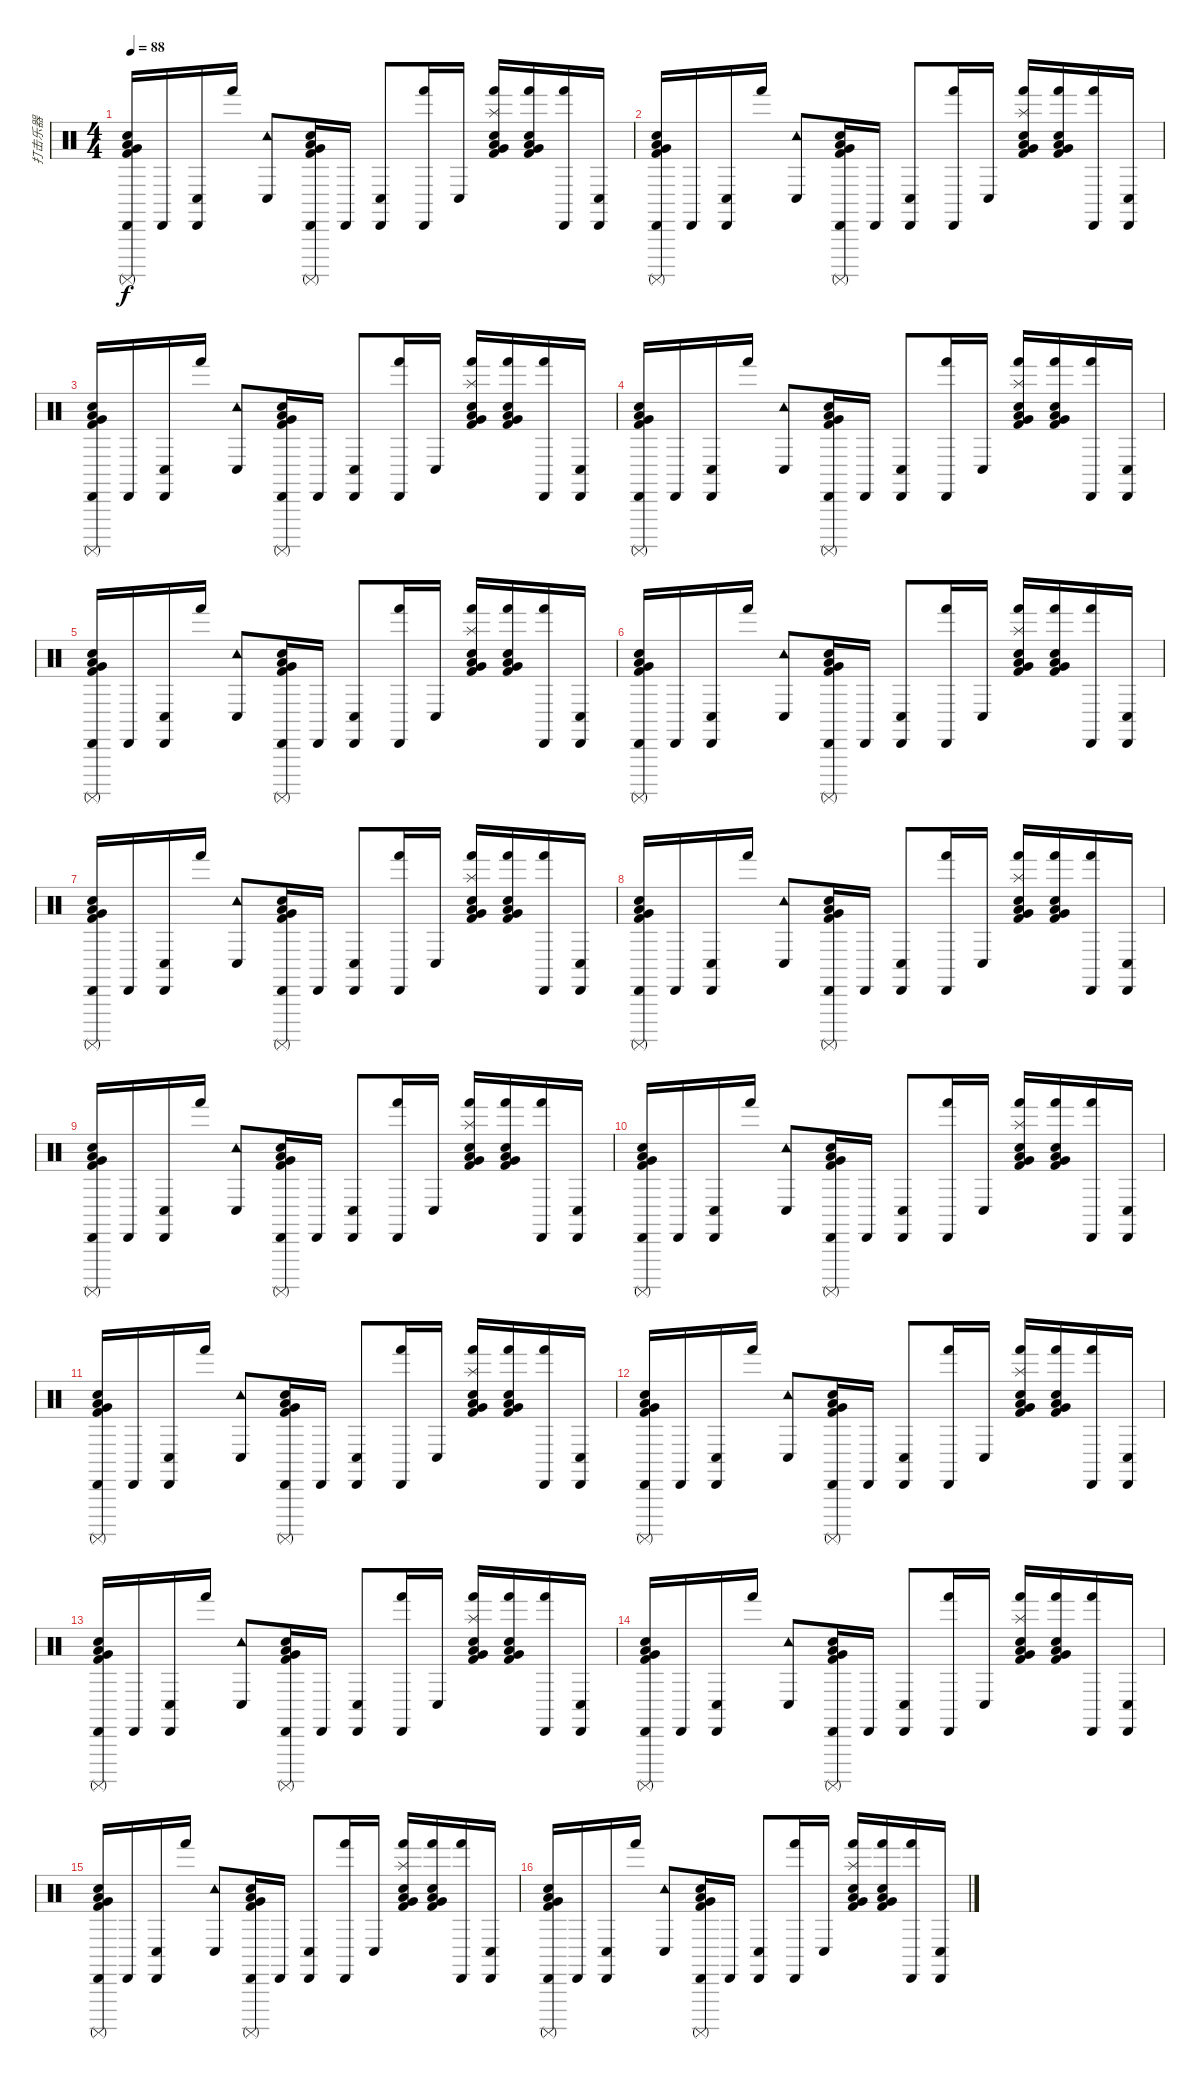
\track ("打击乐器" "打击乐器") {instrument percussion}
\staff {score}
\articulation defaults
\ts (4 4)
\tempo 88
\clef neutral
\ks c
("Cabasa (hit)" "Surdo (mute)" "Electric Snare (hit)" "Very Low Tom (hit)" "Low Floor Tom (hit)" "Kick (hit) 2").16{bu 240 dy f} "Cabasa (hit)".16 ("Cabasa (hit)" "Conga low (hit)").16 "Hand (hit)".16 ("Tambourine (hit)" "Conga low (hit)").8 ("Cabasa (hit)" "Surdo (mute)" "Electric Snare (hit)" "Very Low Tom (hit)" "Low Floor Tom (hit)" "Kick (hit) 2").16{bd 60} "Cabasa (hit)".16 ("Cabasa (hit)" "Conga low (hit)").8 ("Cabasa (hit)" "Hand (hit)").16 "Conga low (hit)".16 ("Splash (hit)" "Hand (hit)" "Electric Snare (hit)" "Very Low Tom (hit)" "Low Floor Tom (hit)" "Kick (hit) 2").16{bu 60} ("Hand (hit)" "Electric Snare (hit)" "Very Low Tom (hit)" "Low Floor Tom (hit)" "Kick (hit) 2").16{bd 60} ("Cabasa (hit)" "Hand (hit)").16 ("Cabasa (hit)" "Conga low (hit)").16 |
("Cabasa (hit)" "Surdo (mute)" "Electric Snare (hit)" "Very Low Tom (hit)" "Low Floor Tom (hit)" "Kick (hit) 2").16{bu 240} "Cabasa (hit)".16 ("Cabasa (hit)" "Conga low (hit)").16 "Hand (hit)".16 ("Tambourine (hit)" "Conga low (hit)").8 ("Cabasa (hit)" "Surdo (mute)" "Electric Snare (hit)" "Very Low Tom (hit)" "Low Floor Tom (hit)" "Kick (hit) 2").16{bu 240} "Cabasa (hit)".16 ("Cabasa (hit)" "Conga low (hit)").8 ("Cabasa (hit)" "Hand (hit)").16 "Conga low (hit)".16 ("Splash (hit)" "Hand (hit)" "Electric Snare (hit)" "Very Low Tom (hit)" "Low Floor Tom (hit)" "Kick (hit) 2").16{bu 60} ("Hand (hit)" "Electric Snare (hit)" "Very Low Tom (hit)" "Low Floor Tom (hit)" "Kick (hit) 2").16{bd 60} ("Cabasa (hit)" "Hand (hit)").16 ("Cabasa (hit)" "Conga low (hit)").16 |
("Cabasa (hit)" "Surdo (mute)" "Electric Snare (hit)" "Very Low Tom (hit)" "Low Floor Tom (hit)" "Kick (hit) 2").16{bu 240} "Cabasa (hit)".16 ("Cabasa (hit)" "Conga low (hit)").16 "Hand (hit)".16 ("Tambourine (hit)" "Conga low (hit)").8 ("Cabasa (hit)" "Surdo (mute)" "Electric Snare (hit)" "Very Low Tom (hit)" "Low Floor Tom (hit)" "Kick (hit) 2").16{bd 60} "Cabasa (hit)".16 ("Cabasa (hit)" "Conga low (hit)").8 ("Cabasa (hit)" "Hand (hit)").16 "Conga low (hit)".16 ("Splash (hit)" "Hand (hit)" "Electric Snare (hit)" "Very Low Tom (hit)" "Low Floor Tom (hit)" "Kick (hit) 2").16{bu 60} ("Hand (hit)" "Electric Snare (hit)" "Very Low Tom (hit)" "Low Floor Tom (hit)" "Kick (hit) 2").16{bd 60} ("Cabasa (hit)" "Hand (hit)").16 ("Cabasa (hit)" "Conga low (hit)").16 |
("Cabasa (hit)" "Surdo (mute)" "Electric Snare (hit)" "Very Low Tom (hit)" "Low Floor Tom (hit)" "Kick (hit) 2").16{bu 240} "Cabasa (hit)".16 ("Cabasa (hit)" "Conga low (hit)").16 "Hand (hit)".16 ("Tambourine (hit)" "Conga low (hit)").8 ("Cabasa (hit)" "Surdo (mute)" "Electric Snare (hit)" "Very Low Tom (hit)" "Low Floor Tom (hit)" "Kick (hit) 2").16{bu 240} "Cabasa (hit)".16 ("Cabasa (hit)" "Conga low (hit)").8 ("Cabasa (hit)" "Hand (hit)").16 "Conga low (hit)".16 ("Splash (hit)" "Hand (hit)" "Electric Snare (hit)" "Very Low Tom (hit)" "Low Floor Tom (hit)" "Kick (hit) 2").16{bu 60} ("Hand (hit)" "Electric Snare (hit)" "Very Low Tom (hit)" "Low Floor Tom (hit)" "Kick (hit) 2").16{bd 60} ("Cabasa (hit)" "Hand (hit)").16 ("Cabasa (hit)" "Conga low (hit)").16 |
("Cabasa (hit)" "Surdo (mute)" "Electric Snare (hit)" "Very Low Tom (hit)" "Low Floor Tom (hit)" "Kick (hit) 2").16{bu 240} "Cabasa (hit)".16 ("Cabasa (hit)" "Conga low (hit)").16 "Hand (hit)".16 ("Tambourine (hit)" "Conga low (hit)").8 ("Cabasa (hit)" "Surdo (mute)" "Electric Snare (hit)" "Very Low Tom (hit)" "Low Floor Tom (hit)" "Kick (hit) 2").16{bd 60} "Cabasa (hit)".16 ("Cabasa (hit)" "Conga low (hit)").8 ("Cabasa (hit)" "Hand (hit)").16 "Conga low (hit)".16 ("Splash (hit)" "Hand (hit)" "Electric Snare (hit)" "Very Low Tom (hit)" "Low Floor Tom (hit)" "Kick (hit) 2").16{bu 60} ("Hand (hit)" "Electric Snare (hit)" "Very Low Tom (hit)" "Low Floor Tom (hit)" "Kick (hit) 2").16{bd 60} ("Cabasa (hit)" "Hand (hit)").16 ("Cabasa (hit)" "Conga low (hit)").16 |
("Cabasa (hit)" "Surdo (mute)" "Electric Snare (hit)" "Very Low Tom (hit)" "Low Floor Tom (hit)" "Kick (hit) 2").16{bu 240} "Cabasa (hit)".16 ("Cabasa (hit)" "Conga low (hit)").16 "Hand (hit)".16 ("Tambourine (hit)" "Conga low (hit)").8 ("Cabasa (hit)" "Surdo (mute)" "Electric Snare (hit)" "Very Low Tom (hit)" "Low Floor Tom (hit)" "Kick (hit) 2").16{bu 240} "Cabasa (hit)".16 ("Cabasa (hit)" "Conga low (hit)").8 ("Cabasa (hit)" "Hand (hit)").16 "Conga low (hit)".16 ("Splash (hit)" "Hand (hit)" "Electric Snare (hit)" "Very Low Tom (hit)" "Low Floor Tom (hit)" "Kick (hit) 2").16{bu 60} ("Hand (hit)" "Electric Snare (hit)" "Very Low Tom (hit)" "Low Floor Tom (hit)" "Kick (hit) 2").16{bd 60} ("Cabasa (hit)" "Hand (hit)").16 ("Cabasa (hit)" "Conga low (hit)").16 |
("Cabasa (hit)" "Surdo (mute)" "Electric Snare (hit)" "Very Low Tom (hit)" "Low Floor Tom (hit)" "Kick (hit) 2").16{bu 240} "Cabasa (hit)".16 ("Cabasa (hit)" "Conga low (hit)").16 "Hand (hit)".16 ("Tambourine (hit)" "Conga low (hit)").8 ("Cabasa (hit)" "Surdo (mute)" "Electric Snare (hit)" "Very Low Tom (hit)" "Low Floor Tom (hit)" "Kick (hit) 2").16{bd 60} "Cabasa (hit)".16 ("Cabasa (hit)" "Conga low (hit)").8 ("Cabasa (hit)" "Hand (hit)").16 "Conga low (hit)".16 ("Splash (hit)" "Hand (hit)" "Electric Snare (hit)" "Very Low Tom (hit)" "Low Floor Tom (hit)" "Kick (hit) 2").16{bu 60} ("Hand (hit)" "Electric Snare (hit)" "Very Low Tom (hit)" "Low Floor Tom (hit)" "Kick (hit) 2").16{bd 60} ("Cabasa (hit)" "Hand (hit)").16 ("Cabasa (hit)" "Conga low (hit)").16 |
("Cabasa (hit)" "Surdo (mute)" "Electric Snare (hit)" "Very Low Tom (hit)" "Low Floor Tom (hit)" "Kick (hit) 2").16{bu 240} "Cabasa (hit)".16 ("Cabasa (hit)" "Conga low (hit)").16 "Hand (hit)".16 ("Tambourine (hit)" "Conga low (hit)").8 ("Cabasa (hit)" "Surdo (mute)" "Electric Snare (hit)" "Very Low Tom (hit)" "Low Floor Tom (hit)" "Kick (hit) 2").16{bu 240} "Cabasa (hit)".16 ("Cabasa (hit)" "Conga low (hit)").8 ("Cabasa (hit)" "Hand (hit)").16 "Conga low (hit)".16 ("Splash (hit)" "Hand (hit)" "Electric Snare (hit)" "Very Low Tom (hit)" "Low Floor Tom (hit)" "Kick (hit) 2").16{bu 60} ("Hand (hit)" "Electric Snare (hit)" "Very Low Tom (hit)" "Low Floor Tom (hit)" "Kick (hit) 2").16{bd 60} ("Cabasa (hit)" "Hand (hit)").16 ("Cabasa (hit)" "Conga low (hit)").16 |
("Cabasa (hit)" "Surdo (mute)" "Electric Snare (hit)" "Very Low Tom (hit)" "Low Floor Tom (hit)" "Kick (hit) 2").16{bu 240} "Cabasa (hit)".16 ("Cabasa (hit)" "Conga low (hit)").16 "Hand (hit)".16 ("Tambourine (hit)" "Conga low (hit)").8 ("Cabasa (hit)" "Surdo (mute)" "Electric Snare (hit)" "Very Low Tom (hit)" "Low Floor Tom (hit)" "Kick (hit) 2").16{bd 60} "Cabasa (hit)".16 ("Cabasa (hit)" "Conga low (hit)").8 ("Cabasa (hit)" "Hand (hit)").16 "Conga low (hit)".16 ("Splash (hit)" "Hand (hit)" "Electric Snare (hit)" "Very Low Tom (hit)" "Low Floor Tom (hit)" "Kick (hit) 2").16{bu 60} ("Hand (hit)" "Electric Snare (hit)" "Very Low Tom (hit)" "Low Floor Tom (hit)" "Kick (hit) 2").16{bd 60} ("Cabasa (hit)" "Hand (hit)").16 ("Cabasa (hit)" "Conga low (hit)").16 |
("Cabasa (hit)" "Surdo (mute)" "Electric Snare (hit)" "Very Low Tom (hit)" "Low Floor Tom (hit)" "Kick (hit) 2").16{bu 240} "Cabasa (hit)".16 ("Cabasa (hit)" "Conga low (hit)").16 "Hand (hit)".16 ("Tambourine (hit)" "Conga low (hit)").8 ("Cabasa (hit)" "Surdo (mute)" "Electric Snare (hit)" "Very Low Tom (hit)" "Low Floor Tom (hit)" "Kick (hit) 2").16{bu 240} "Cabasa (hit)".16 ("Cabasa (hit)" "Conga low (hit)").8 ("Cabasa (hit)" "Hand (hit)").16 "Conga low (hit)".16 ("Splash (hit)" "Hand (hit)" "Electric Snare (hit)" "Very Low Tom (hit)" "Low Floor Tom (hit)" "Kick (hit) 2").16{bu 60} ("Hand (hit)" "Electric Snare (hit)" "Very Low Tom (hit)" "Low Floor Tom (hit)" "Kick (hit) 2").16{bd 60} ("Cabasa (hit)" "Hand (hit)").16 ("Cabasa (hit)" "Conga low (hit)").16 |
("Cabasa (hit)" "Surdo (mute)" "Electric Snare (hit)" "Very Low Tom (hit)" "Low Floor Tom (hit)" "Kick (hit) 2").16{bu 240} "Cabasa (hit)".16 ("Cabasa (hit)" "Conga low (hit)").16 "Hand (hit)".16 ("Tambourine (hit)" "Conga low (hit)").8 ("Cabasa (hit)" "Surdo (mute)" "Electric Snare (hit)" "Very Low Tom (hit)" "Low Floor Tom (hit)" "Kick (hit) 2").16{bd 60} "Cabasa (hit)".16 ("Cabasa (hit)" "Conga low (hit)").8 ("Cabasa (hit)" "Hand (hit)").16 "Conga low (hit)".16 ("Splash (hit)" "Hand (hit)" "Electric Snare (hit)" "Very Low Tom (hit)" "Low Floor Tom (hit)" "Kick (hit) 2").16{bu 60} ("Hand (hit)" "Electric Snare (hit)" "Very Low Tom (hit)" "Low Floor Tom (hit)" "Kick (hit) 2").16{bd 60} ("Cabasa (hit)" "Hand (hit)").16 ("Cabasa (hit)" "Conga low (hit)").16 |
("Cabasa (hit)" "Surdo (mute)" "Electric Snare (hit)" "Very Low Tom (hit)" "Low Floor Tom (hit)" "Kick (hit) 2").16{bu 240} "Cabasa (hit)".16 ("Cabasa (hit)" "Conga low (hit)").16 "Hand (hit)".16 ("Tambourine (hit)" "Conga low (hit)").8 ("Cabasa (hit)" "Surdo (mute)" "Electric Snare (hit)" "Very Low Tom (hit)" "Low Floor Tom (hit)" "Kick (hit) 2").16{bu 240} "Cabasa (hit)".16 ("Cabasa (hit)" "Conga low (hit)").8 ("Cabasa (hit)" "Hand (hit)").16 "Conga low (hit)".16 ("Splash (hit)" "Hand (hit)" "Electric Snare (hit)" "Very Low Tom (hit)" "Low Floor Tom (hit)" "Kick (hit) 2").16{bu 60} ("Hand (hit)" "Electric Snare (hit)" "Very Low Tom (hit)" "Low Floor Tom (hit)" "Kick (hit) 2").16{bd 60} ("Cabasa (hit)" "Hand (hit)").16 ("Cabasa (hit)" "Conga low (hit)").16 |
("Cabasa (hit)" "Surdo (mute)" "Electric Snare (hit)" "Very Low Tom (hit)" "Low Floor Tom (hit)" "Kick (hit) 2").16{bu 240} "Cabasa (hit)".16 ("Cabasa (hit)" "Conga low (hit)").16 "Hand (hit)".16 ("Tambourine (hit)" "Conga low (hit)").8 ("Cabasa (hit)" "Surdo (mute)" "Electric Snare (hit)" "Very Low Tom (hit)" "Low Floor Tom (hit)" "Kick (hit) 2").16{bd 60} "Cabasa (hit)".16 ("Cabasa (hit)" "Conga low (hit)").8 ("Cabasa (hit)" "Hand (hit)").16 "Conga low (hit)".16 ("Splash (hit)" "Hand (hit)" "Electric Snare (hit)" "Very Low Tom (hit)" "Low Floor Tom (hit)" "Kick (hit) 2").16{bu 60} ("Hand (hit)" "Electric Snare (hit)" "Very Low Tom (hit)" "Low Floor Tom (hit)" "Kick (hit) 2").16{bd 60} ("Cabasa (hit)" "Hand (hit)").16 ("Cabasa (hit)" "Conga low (hit)").16 |
("Cabasa (hit)" "Surdo (mute)" "Electric Snare (hit)" "Very Low Tom (hit)" "Low Floor Tom (hit)" "Kick (hit) 2").16{bu 240} "Cabasa (hit)".16 ("Cabasa (hit)" "Conga low (hit)").16 "Hand (hit)".16 ("Tambourine (hit)" "Conga low (hit)").8 ("Cabasa (hit)" "Surdo (mute)" "Electric Snare (hit)" "Very Low Tom (hit)" "Low Floor Tom (hit)" "Kick (hit) 2").16{bu 240} "Cabasa (hit)".16 ("Cabasa (hit)" "Conga low (hit)").8 ("Cabasa (hit)" "Hand (hit)").16 "Conga low (hit)".16 ("Splash (hit)" "Hand (hit)" "Electric Snare (hit)" "Very Low Tom (hit)" "Low Floor Tom (hit)" "Kick (hit) 2").16{bu 60} ("Hand (hit)" "Electric Snare (hit)" "Very Low Tom (hit)" "Low Floor Tom (hit)" "Kick (hit) 2").16{bd 60} ("Cabasa (hit)" "Hand (hit)").16 ("Cabasa (hit)" "Conga low (hit)").16 |
("Cabasa (hit)" "Surdo (mute)" "Electric Snare (hit)" "Very Low Tom (hit)" "Low Floor Tom (hit)" "Kick (hit) 2").16{bu 240} "Cabasa (hit)".16 ("Cabasa (hit)" "Conga low (hit)").16 "Hand (hit)".16 ("Tambourine (hit)" "Conga low (hit)").8 ("Cabasa (hit)" "Surdo (mute)" "Electric Snare (hit)" "Very Low Tom (hit)" "Low Floor Tom (hit)" "Kick (hit) 2").16{bd 60} "Cabasa (hit)".16 ("Cabasa (hit)" "Conga low (hit)").8 ("Cabasa (hit)" "Hand (hit)").16 "Conga low (hit)".16 ("Splash (hit)" "Hand (hit)" "Electric Snare (hit)" "Very Low Tom (hit)" "Low Floor Tom (hit)" "Kick (hit) 2").16{bu 60} ("Hand (hit)" "Electric Snare (hit)" "Very Low Tom (hit)" "Low Floor Tom (hit)" "Kick (hit) 2").16{bd 60} ("Cabasa (hit)" "Hand (hit)").16 ("Cabasa (hit)" "Conga low (hit)").16 |
("Cabasa (hit)" "Surdo (mute)" "Electric Snare (hit)" "Very Low Tom (hit)" "Low Floor Tom (hit)" "Kick (hit) 2").16{bu 240} "Cabasa (hit)".16 ("Cabasa (hit)" "Conga low (hit)").16 "Hand (hit)".16 ("Tambourine (hit)" "Conga low (hit)").8 ("Cabasa (hit)" "Surdo (mute)" "Electric Snare (hit)" "Very Low Tom (hit)" "Low Floor Tom (hit)" "Kick (hit) 2").16{bu 240} "Cabasa (hit)".16 ("Cabasa (hit)" "Conga low (hit)").8 ("Cabasa (hit)" "Hand (hit)").16 "Conga low (hit)".16 ("Splash (hit)" "Hand (hit)" "Electric Snare (hit)" "Very Low Tom (hit)" "Low Floor Tom (hit)" "Kick (hit) 2").16{bu 60} ("Hand (hit)" "Electric Snare (hit)" "Very Low Tom (hit)" "Low Floor Tom (hit)" "Kick (hit) 2").16{bd 60} ("Cabasa (hit)" "Hand (hit)").16 ("Cabasa (hit)" "Conga low (hit)").16
